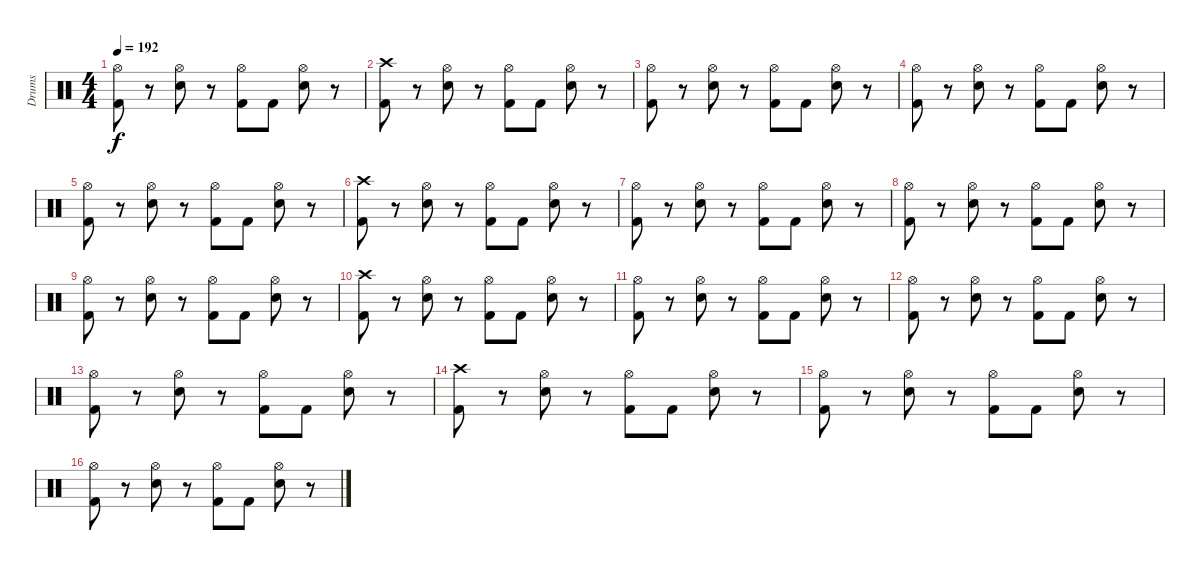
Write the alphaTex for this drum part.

\track ("Drums" "Drums") {instrument percussion}
\staff {score}
\articulation defaults
\ts (4 4)
\tempo 192
\clef neutral
\ks c
("Hi-Hat (open)" "Kick (hit) 2").8{dy f} r.8 ("Hi-Hat (open)" "Electric Snare (hit)").8 r.8 ("Hi-Hat (open)" "Kick (hit) 2").8 "Kick (hit) 2".8 ("Hi-Hat (open)" "Electric Snare (hit)").8 r.8 |
("Crash high (hit)" "Kick (hit) 2").8 r.8 ("Hi-Hat (open)" "Electric Snare (hit)").8 r.8 ("Hi-Hat (open)" "Kick (hit) 2").8 "Kick (hit) 2".8 ("Hi-Hat (open)" "Electric Snare (hit)").8 r.8 |
("Hi-Hat (open)" "Kick (hit) 2").8 r.8 ("Hi-Hat (open)" "Electric Snare (hit)").8 r.8 ("Hi-Hat (open)" "Kick (hit) 2").8 "Kick (hit) 2".8 ("Hi-Hat (open)" "Electric Snare (hit)").8 r.8 |
("Hi-Hat (open)" "Kick (hit) 2").8 r.8 ("Hi-Hat (open)" "Electric Snare (hit)").8 r.8 ("Hi-Hat (open)" "Kick (hit) 2").8 "Kick (hit) 2".8 ("Hi-Hat (open)" "Electric Snare (hit)").8 r.8 |
("Hi-Hat (open)" "Kick (hit) 2").8 r.8 ("Hi-Hat (open)" "Electric Snare (hit)").8 r.8 ("Hi-Hat (open)" "Kick (hit) 2").8 "Kick (hit) 2".8 ("Hi-Hat (open)" "Electric Snare (hit)").8 r.8 |
("Crash high (hit)" "Kick (hit) 2").8 r.8 ("Hi-Hat (open)" "Electric Snare (hit)").8 r.8 ("Hi-Hat (open)" "Kick (hit) 2").8 "Kick (hit) 2".8 ("Hi-Hat (open)" "Electric Snare (hit)").8 r.8 |
("Hi-Hat (open)" "Kick (hit) 2").8 r.8 ("Hi-Hat (open)" "Electric Snare (hit)").8 r.8 ("Hi-Hat (open)" "Kick (hit) 2").8 "Kick (hit) 2".8 ("Hi-Hat (open)" "Electric Snare (hit)").8 r.8 |
("Hi-Hat (open)" "Kick (hit) 2").8 r.8 ("Hi-Hat (open)" "Electric Snare (hit)").8 r.8 ("Hi-Hat (open)" "Kick (hit) 2").8 "Kick (hit) 2".8 ("Hi-Hat (open)" "Electric Snare (hit)").8 r.8 |
("Hi-Hat (open)" "Kick (hit) 2").8 r.8 ("Hi-Hat (open)" "Electric Snare (hit)").8 r.8 ("Hi-Hat (open)" "Kick (hit) 2").8 "Kick (hit) 2".8 ("Hi-Hat (open)" "Electric Snare (hit)").8 r.8 |
("Crash high (hit)" "Kick (hit) 2").8{volume 16} r.8 ("Hi-Hat (open)" "Electric Snare (hit)").8{volume 16} r.8 ("Hi-Hat (open)" "Kick (hit) 2").8{volume 15} "Kick (hit) 2".8{volume 15} ("Hi-Hat (open)" "Electric Snare (hit)").8{volume 15} r.8 |
("Hi-Hat (open)" "Kick (hit) 2").8{volume 15} r.8 ("Hi-Hat (open)" "Electric Snare (hit)").8{volume 15} r.8 ("Hi-Hat (open)" "Kick (hit) 2").8{volume 14} "Kick (hit) 2".8{volume 14} ("Hi-Hat (open)" "Electric Snare (hit)").8{volume 14} r.8 |
("Hi-Hat (open)" "Kick (hit) 2").8{volume 14} r.8 ("Hi-Hat (open)" "Electric Snare (hit)").8{volume 14} r.8 ("Hi-Hat (open)" "Kick (hit) 2").8{volume 13} "Kick (hit) 2".8{volume 13} ("Hi-Hat (open)" "Electric Snare (hit)").8{volume 13} r.8 |
("Hi-Hat (open)" "Kick (hit) 2").8{volume 13} r.8 ("Hi-Hat (open)" "Electric Snare (hit)").8{volume 13} r.8 ("Hi-Hat (open)" "Kick (hit) 2").8{volume 12} "Kick (hit) 2".8{volume 12} ("Hi-Hat (open)" "Electric Snare (hit)").8{volume 12} r.8 |
("Crash high (hit)" "Kick (hit) 2").8{volume 12} r.8 ("Hi-Hat (open)" "Electric Snare (hit)").8{volume 12} r.8 ("Hi-Hat (open)" "Kick (hit) 2").8{volume 11} "Kick (hit) 2".8{volume 11} ("Hi-Hat (open)" "Electric Snare (hit)").8{volume 11} r.8 |
("Hi-Hat (open)" "Kick (hit) 2").8{volume 11} r.8 ("Hi-Hat (open)" "Electric Snare (hit)").8{volume 11} r.8 ("Hi-Hat (open)" "Kick (hit) 2").8{volume 10} "Kick (hit) 2".8{volume 10} ("Hi-Hat (open)" "Electric Snare (hit)").8{volume 10} r.8 |
("Hi-Hat (open)" "Kick (hit) 2").8{volume 10} r.8 ("Hi-Hat (open)" "Electric Snare (hit)").8{volume 10} r.8 ("Hi-Hat (open)" "Kick (hit) 2").8{volume 9} "Kick (hit) 2".8{volume 9} ("Hi-Hat (open)" "Electric Snare (hit)").8{volume 9} r.8
